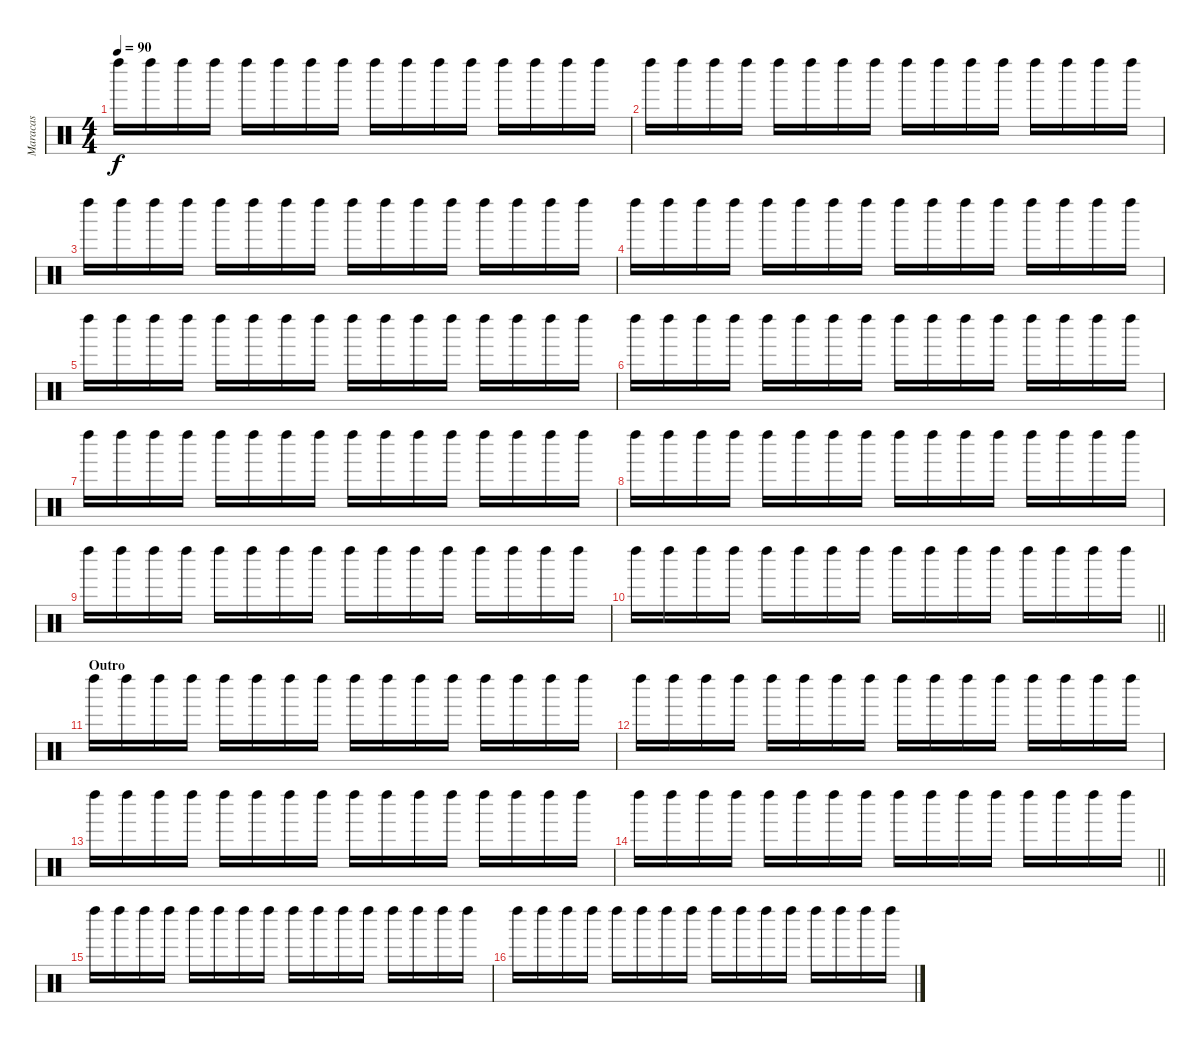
\track ("Maracas" "Maracas") {instrument percussion}
\staff {score}
\articulation defaults
\ts (4 4)
\tempo 90
\clef neutral
\ks c "Left Maraca (hit)".16{dy f} "Left Maraca (hit)".16 "Left Maraca (hit)".16 "Left Maraca (hit)".16 "Left Maraca (hit)".16 "Left Maraca (hit)".16 "Left Maraca (hit)".16 "Left Maraca (hit)".16 "Left Maraca (hit)".16 "Left Maraca (hit)".16 "Left Maraca (hit)".16 "Left Maraca (hit)".16 "Left Maraca (hit)".16 "Left Maraca (hit)".16 "Left Maraca (hit)".16 "Left Maraca (hit)".16
|
"Left Maraca (hit)".16 "Left Maraca (hit)".16 "Left Maraca (hit)".16 "Left Maraca (hit)".16 "Left Maraca (hit)".16 "Left Maraca (hit)".16 "Left Maraca (hit)".16 "Left Maraca (hit)".16 "Left Maraca (hit)".16 "Left Maraca (hit)".16 "Left Maraca (hit)".16 "Left Maraca (hit)".16 "Left Maraca (hit)".16 "Left Maraca (hit)".16 "Left Maraca (hit)".16 "Left Maraca (hit)".16 |
"Left Maraca (hit)".16 "Left Maraca (hit)".16 "Left Maraca (hit)".16 "Left Maraca (hit)".16 "Left Maraca (hit)".16 "Left Maraca (hit)".16 "Left Maraca (hit)".16 "Left Maraca (hit)".16 "Left Maraca (hit)".16 "Left Maraca (hit)".16 "Left Maraca (hit)".16 "Left Maraca (hit)".16 "Left Maraca (hit)".16 "Left Maraca (hit)".16 "Left Maraca (hit)".16 "Left Maraca (hit)".16 |
"Left Maraca (hit)".16 "Left Maraca (hit)".16 "Left Maraca (hit)".16 "Left Maraca (hit)".16 "Left Maraca (hit)".16 "Left Maraca (hit)".16 "Left Maraca (hit)".16 "Left Maraca (hit)".16 "Left Maraca (hit)".16 "Left Maraca (hit)".16 "Left Maraca (hit)".16 "Left Maraca (hit)".16 "Left Maraca (hit)".16 "Left Maraca (hit)".16 "Left Maraca (hit)".16 "Left Maraca (hit)".16 |
"Left Maraca (hit)".16 "Left Maraca (hit)".16 "Left Maraca (hit)".16 "Left Maraca (hit)".16 "Left Maraca (hit)".16 "Left Maraca (hit)".16 "Left Maraca (hit)".16 "Left Maraca (hit)".16 "Left Maraca (hit)".16 "Left Maraca (hit)".16 "Left Maraca (hit)".16 "Left Maraca (hit)".16 "Left Maraca (hit)".16 "Left Maraca (hit)".16 "Left Maraca (hit)".16 "Left Maraca (hit)".16 |
"Left Maraca (hit)".16 "Left Maraca (hit)".16 "Left Maraca (hit)".16 "Left Maraca (hit)".16 "Left Maraca (hit)".16 "Left Maraca (hit)".16 "Left Maraca (hit)".16 "Left Maraca (hit)".16 "Left Maraca (hit)".16 "Left Maraca (hit)".16 "Left Maraca (hit)".16 "Left Maraca (hit)".16 "Left Maraca (hit)".16 "Left Maraca (hit)".16 "Left Maraca (hit)".16 "Left Maraca (hit)".16 |
"Left Maraca (hit)".16 "Left Maraca (hit)".16 "Left Maraca (hit)".16 "Left Maraca (hit)".16 "Left Maraca (hit)".16 "Left Maraca (hit)".16 "Left Maraca (hit)".16 "Left Maraca (hit)".16 "Left Maraca (hit)".16 "Left Maraca (hit)".16 "Left Maraca (hit)".16 "Left Maraca (hit)".16 "Left Maraca (hit)".16 "Left Maraca (hit)".16 "Left Maraca (hit)".16 "Left Maraca (hit)".16 |
"Left Maraca (hit)".16 "Left Maraca (hit)".16 "Left Maraca (hit)".16 "Left Maraca (hit)".16 "Left Maraca (hit)".16 "Left Maraca (hit)".16 "Left Maraca (hit)".16 "Left Maraca (hit)".16 "Left Maraca (hit)".16 "Left Maraca (hit)".16 "Left Maraca (hit)".16 "Left Maraca (hit)".16 "Left Maraca (hit)".16 "Left Maraca (hit)".16 "Left Maraca (hit)".16 "Left Maraca (hit)".16 |
"Left Maraca (hit)".16 "Left Maraca (hit)".16 "Left Maraca (hit)".16 "Left Maraca (hit)".16 "Left Maraca (hit)".16 "Left Maraca (hit)".16 "Left Maraca (hit)".16 "Left Maraca (hit)".16 "Left Maraca (hit)".16 "Left Maraca (hit)".16 "Left Maraca (hit)".16 "Left Maraca (hit)".16 "Left Maraca (hit)".16 "Left Maraca (hit)".16 "Left Maraca (hit)".16 "Left Maraca (hit)".16 |
\barLineRight lightlight "Left Maraca (hit)".16 "Left Maraca (hit)".16 "Left Maraca (hit)".16 "Left Maraca (hit)".16 "Left Maraca (hit)".16 "Left Maraca (hit)".16 "Left Maraca (hit)".16 "Left Maraca (hit)".16 "Left Maraca (hit)".16 "Left Maraca (hit)".16 "Left Maraca (hit)".16 "Left Maraca (hit)".16 "Left Maraca (hit)".16 "Left Maraca (hit)".16 "Left Maraca (hit)".16 "Left Maraca (hit)".16
|
\section ("" "Outro")
"Left Maraca (hit)".16 "Left Maraca (hit)".16 "Left Maraca (hit)".16 "Left Maraca (hit)".16 "Left Maraca (hit)".16 "Left Maraca (hit)".16 "Left Maraca (hit)".16 "Left Maraca (hit)".16 "Left Maraca (hit)".16 "Left Maraca (hit)".16 "Left Maraca (hit)".16 "Left Maraca (hit)".16 "Left Maraca (hit)".16 "Left Maraca (hit)".16 "Left Maraca (hit)".16 "Left Maraca (hit)".16 |
"Left Maraca (hit)".16 "Left Maraca (hit)".16 "Left Maraca (hit)".16 "Left Maraca (hit)".16 "Left Maraca (hit)".16 "Left Maraca (hit)".16 "Left Maraca (hit)".16 "Left Maraca (hit)".16 "Left Maraca (hit)".16 "Left Maraca (hit)".16 "Left Maraca (hit)".16 "Left Maraca (hit)".16 "Left Maraca (hit)".16 "Left Maraca (hit)".16 "Left Maraca (hit)".16 "Left Maraca (hit)".16 |
"Left Maraca (hit)".16 "Left Maraca (hit)".16 "Left Maraca (hit)".16 "Left Maraca (hit)".16 "Left Maraca (hit)".16 "Left Maraca (hit)".16 "Left Maraca (hit)".16 "Left Maraca (hit)".16 "Left Maraca (hit)".16 "Left Maraca (hit)".16 "Left Maraca (hit)".16 "Left Maraca (hit)".16 "Left Maraca (hit)".16 "Left Maraca (hit)".16 "Left Maraca (hit)".16 "Left Maraca (hit)".16 |
\barLineRight lightlight "Left Maraca (hit)".16 "Left Maraca (hit)".16 "Left Maraca (hit)".16 "Left Maraca (hit)".16 "Left Maraca (hit)".16 "Left Maraca (hit)".16 "Left Maraca (hit)".16 "Left Maraca (hit)".16 "Left Maraca (hit)".16 "Left Maraca (hit)".16 "Left Maraca (hit)".16 "Left Maraca (hit)".16 "Left Maraca (hit)".16 "Left Maraca (hit)".16 "Left Maraca (hit)".16 "Left Maraca (hit)".16
|
"Left Maraca (hit)".16 "Left Maraca (hit)".16 "Left Maraca (hit)".16 "Left Maraca (hit)".16 "Left Maraca (hit)".16 "Left Maraca (hit)".16 "Left Maraca (hit)".16 "Left Maraca (hit)".16 "Left Maraca (hit)".16 "Left Maraca (hit)".16 "Left Maraca (hit)".16 "Left Maraca (hit)".16 "Left Maraca (hit)".16 "Left Maraca (hit)".16 "Left Maraca (hit)".16 "Left Maraca (hit)".16 |
"Left Maraca (hit)".16 "Left Maraca (hit)".16 "Left Maraca (hit)".16 "Left Maraca (hit)".16 "Left Maraca (hit)".16 "Left Maraca (hit)".16 "Left Maraca (hit)".16 "Left Maraca (hit)".16 "Left Maraca (hit)".16 "Left Maraca (hit)".16 "Left Maraca (hit)".16 "Left Maraca (hit)".16 "Left Maraca (hit)".16 "Left Maraca (hit)".16 "Left Maraca (hit)".16 "Left Maraca (hit)".16
